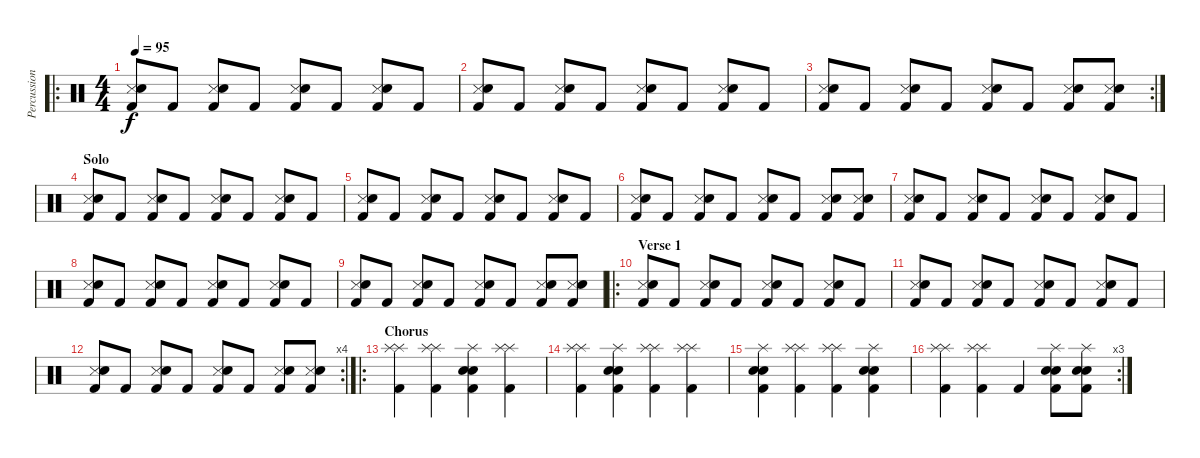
\track ("Percussion" "Percussion") {instrument percussion}
\staff {score}
\articulation defaults
\ro
\ts (4 4)
\tempo 95
\clef neutral
\ks c
("Metronome (hit)" "Electric Snare (hit)" "Kick (hit) 2").8{dy f} "Kick (hit) 2".8 ("Metronome (hit)" "Electric Snare (hit)" "Kick (hit) 2").8 "Kick (hit) 2".8 ("Metronome (hit)" "Electric Snare (hit)" "Kick (hit) 2").8 "Kick (hit) 2".8 ("Metronome (hit)" "Electric Snare (hit)" "Kick (hit) 2").8 "Kick (hit) 2".8 |
("Metronome (hit)" "Electric Snare (hit)" "Kick (hit) 2").8 "Kick (hit) 2".8 ("Metronome (hit)" "Electric Snare (hit)" "Kick (hit) 2").8 "Kick (hit) 2".8 ("Metronome (hit)" "Electric Snare (hit)" "Kick (hit) 2").8 "Kick (hit) 2".8 ("Metronome (hit)" "Electric Snare (hit)" "Kick (hit) 2").8 "Kick (hit) 2".8 |
\rc 2
("Metronome (hit)" "Electric Snare (hit)" "Kick (hit) 2").8 "Kick (hit) 2".8 ("Metronome (hit)" "Electric Snare (hit)" "Kick (hit) 2").8 "Kick (hit) 2".8 ("Metronome (hit)" "Electric Snare (hit)" "Kick (hit) 2").8 "Kick (hit) 2".8 ("Metronome (hit)" "Electric Snare (hit)" "Kick (hit) 2").8 ("Metronome (hit)" "Electric Snare (hit)" "Kick (hit) 2").8 |
\section ("" "Solo")
("Metronome (hit)" "Electric Snare (hit)" "Kick (hit) 2").8 "Kick (hit) 2".8 ("Metronome (hit)" "Electric Snare (hit)" "Kick (hit) 2").8 "Kick (hit) 2".8 ("Metronome (hit)" "Electric Snare (hit)" "Kick (hit) 2").8 "Kick (hit) 2".8 ("Metronome (hit)" "Electric Snare (hit)" "Kick (hit) 2").8 "Kick (hit) 2".8 |
("Metronome (hit)" "Electric Snare (hit)" "Kick (hit) 2").8 "Kick (hit) 2".8 ("Metronome (hit)" "Electric Snare (hit)" "Kick (hit) 2").8 "Kick (hit) 2".8 ("Metronome (hit)" "Electric Snare (hit)" "Kick (hit) 2").8 "Kick (hit) 2".8 ("Metronome (hit)" "Electric Snare (hit)" "Kick (hit) 2").8 "Kick (hit) 2".8 |
("Metronome (hit)" "Electric Snare (hit)" "Kick (hit) 2").8 "Kick (hit) 2".8 ("Metronome (hit)" "Electric Snare (hit)" "Kick (hit) 2").8 "Kick (hit) 2".8 ("Metronome (hit)" "Electric Snare (hit)" "Kick (hit) 2").8 "Kick (hit) 2".8 ("Metronome (hit)" "Electric Snare (hit)" "Kick (hit) 2").8 ("Metronome (hit)" "Electric Snare (hit)" "Kick (hit) 2").8 |
("Metronome (hit)" "Electric Snare (hit)" "Kick (hit) 2").8 "Kick (hit) 2".8 ("Metronome (hit)" "Electric Snare (hit)" "Kick (hit) 2").8 "Kick (hit) 2".8 ("Metronome (hit)" "Electric Snare (hit)" "Kick (hit) 2").8 "Kick (hit) 2".8 ("Metronome (hit)" "Electric Snare (hit)" "Kick (hit) 2").8 "Kick (hit) 2".8 |
("Metronome (hit)" "Electric Snare (hit)" "Kick (hit) 2").8 "Kick (hit) 2".8 ("Metronome (hit)" "Electric Snare (hit)" "Kick (hit) 2").8 "Kick (hit) 2".8 ("Metronome (hit)" "Electric Snare (hit)" "Kick (hit) 2").8 "Kick (hit) 2".8 ("Metronome (hit)" "Electric Snare (hit)" "Kick (hit) 2").8 "Kick (hit) 2".8 |
("Metronome (hit)" "Electric Snare (hit)" "Kick (hit) 2").8 "Kick (hit) 2".8 ("Metronome (hit)" "Electric Snare (hit)" "Kick (hit) 2").8 "Kick (hit) 2".8 ("Metronome (hit)" "Electric Snare (hit)" "Kick (hit) 2").8 "Kick (hit) 2".8 ("Metronome (hit)" "Electric Snare (hit)" "Kick (hit) 2").8 ("Metronome (hit)" "Electric Snare (hit)" "Kick (hit) 2").8 |
\ro
\section ("" "Verse 1")
("Metronome (hit)" "Electric Snare (hit)" "Kick (hit) 2").8 "Kick (hit) 2".8 ("Metronome (hit)" "Electric Snare (hit)" "Kick (hit) 2").8 "Kick (hit) 2".8 ("Metronome (hit)" "Electric Snare (hit)" "Kick (hit) 2").8 "Kick (hit) 2".8 ("Metronome (hit)" "Electric Snare (hit)" "Kick (hit) 2").8 "Kick (hit) 2".8 |
("Metronome (hit)" "Electric Snare (hit)" "Kick (hit) 2").8 "Kick (hit) 2".8 ("Metronome (hit)" "Electric Snare (hit)" "Kick (hit) 2").8 "Kick (hit) 2".8 ("Metronome (hit)" "Electric Snare (hit)" "Kick (hit) 2").8 "Kick (hit) 2".8 ("Metronome (hit)" "Electric Snare (hit)" "Kick (hit) 2").8 "Kick (hit) 2".8 |
\rc 4
("Metronome (hit)" "Electric Snare (hit)" "Kick (hit) 2").8 "Kick (hit) 2".8 ("Metronome (hit)" "Electric Snare (hit)" "Kick (hit) 2").8 "Kick (hit) 2".8 ("Metronome (hit)" "Electric Snare (hit)" "Kick (hit) 2").8 "Kick (hit) 2".8 ("Metronome (hit)" "Electric Snare (hit)" "Kick (hit) 2").8 ("Metronome (hit)" "Electric Snare (hit)" "Kick (hit) 2").8 |
\ro
\section ("" "Chorus")
("Splash (hit)" "Splash (hit)" "Kick (hit) 2").4 ("Splash (hit)" "Splash (hit)" "Kick (hit) 2").4 ("Splash (hit)" "Electric Snare (hit)" "Electric Snare (hit)" "Kick (hit) 2").4 ("Splash (hit)" "Splash (hit)" "Kick (hit) 2").4 |
("Splash (hit)" "Splash (hit)" "Kick (hit) 2").4 ("Splash (hit)" "Electric Snare (hit)" "Electric Snare (hit)" "Kick (hit) 2").4 ("Splash (hit)" "Splash (hit)" "Kick (hit) 2").4 ("Splash (hit)" "Splash (hit)" "Kick (hit) 2").4 |
("Splash (hit)" "Electric Snare (hit)" "Electric Snare (hit)" "Kick (hit) 2").4 ("Splash (hit)" "Splash (hit)" "Kick (hit) 2").4 ("Splash (hit)" "Splash (hit)" "Kick (hit) 2").4 ("Splash (hit)" "Electric Snare (hit)" "Electric Snare (hit)" "Kick (hit) 2").4 |
\rc 3
("Splash (hit)" "Splash (hit)" "Kick (hit) 2").4 ("Splash (hit)" "Splash (hit)" "Kick (hit) 2").4 "Kick (hit) 2".4 ("Splash (hit)" "Electric Snare (hit)" "Electric Snare (hit)" "Kick (hit) 2").8 ("Splash (hit)" "Electric Snare (hit)" "Electric Snare (hit)" "Kick (hit) 2").8
